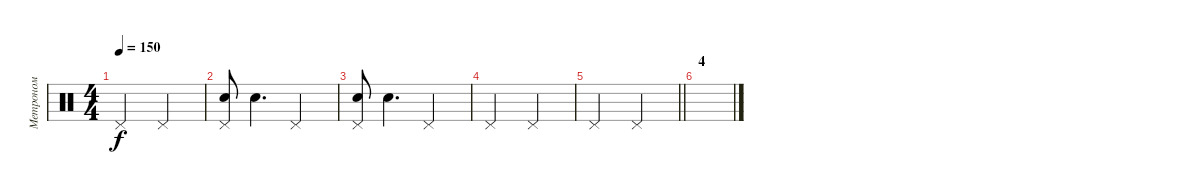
\track ("Метроном" "Метроном") {mute instrument percussion}
\staff {score}
\articulation defaults
\ts (4 4)
\tempo 150
\clef neutral
\ks c "Pedal Hi-Hat (hit)".2{dy f} "Pedal Hi-Hat (hit)".2
|
("Pedal Hi-Hat (hit)" "Snare (hit) 2").8 "Snare (hit) 2".4{d} "Pedal Hi-Hat (hit)".2 |
("Pedal Hi-Hat (hit)" "Snare (hit) 2").8 "Snare (hit) 2".4{d} "Pedal Hi-Hat (hit)".2 |
"Pedal Hi-Hat (hit)".2 "Pedal Hi-Hat (hit)".2 |
\barLineRight lightlight "Pedal Hi-Hat (hit)".2 "Pedal Hi-Hat (hit)".2
|
\section ("" "4")
